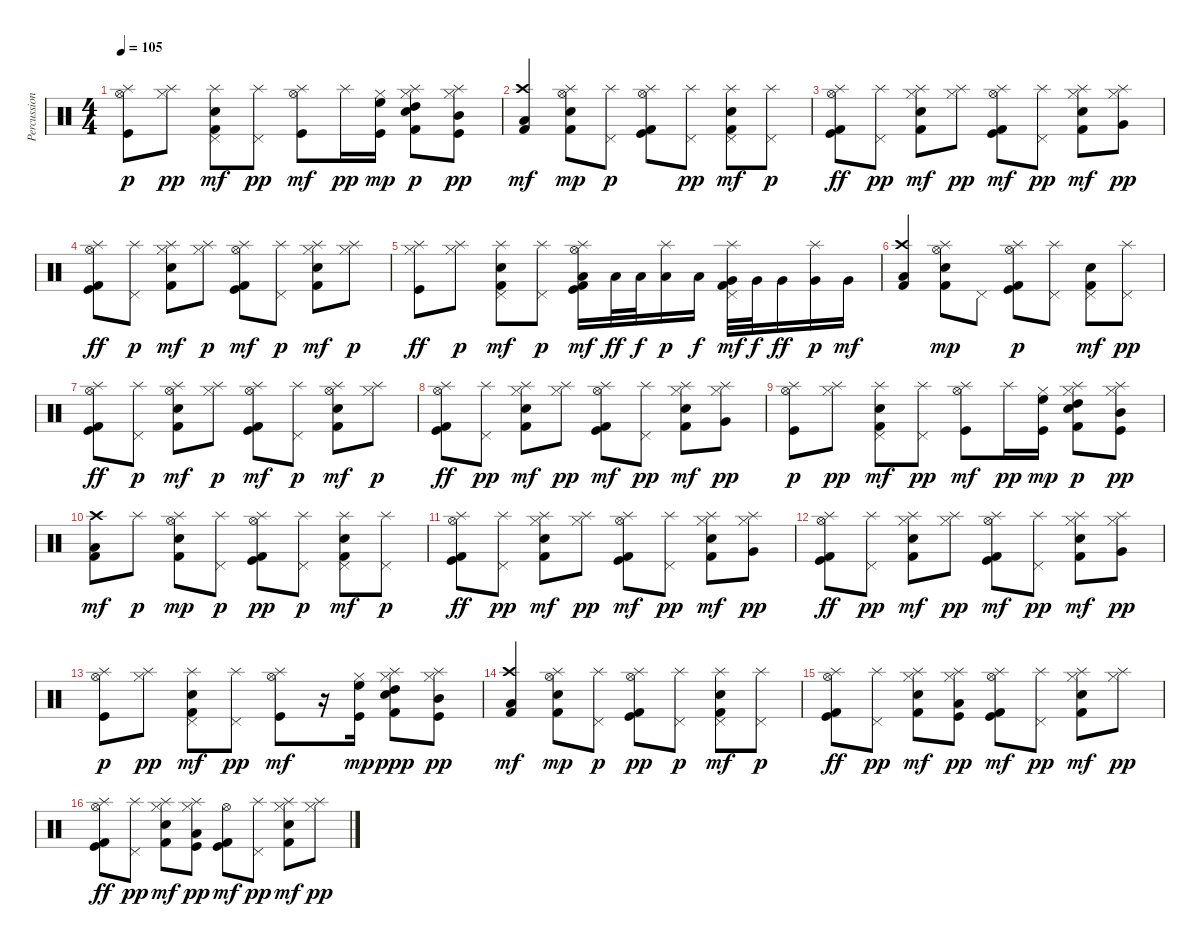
\track ("Percussion" "Percussion") {instrument percussion}
\staff {score}
\articulation defaults
\ts (4 4)
\tempo 105
\clef neutral
\ks c
("Hi-Hat (open)" "Splash (hit)" "Kick (hit)").8{dy p} ("Hi-Hat (closed)" "Splash (hit)").8{dy pp} ("Electric Snare (hit)" "Pedal Hi-Hat (hit)" "Splash (hit)" "Kick (hit) 2").8{dy mf} ("Pedal Hi-Hat (hit)" "Splash (hit)").8{dy pp} ("Hi-Hat (open)" "Splash (hit)" "Kick (hit)").8{dy mf} "Splash (hit)".16{dy pp} ("Hi-Hat (closed)" "High Floor Tom (hit)" "Kick (hit)").16{dy mp} ("Electric Snare (hit)" "Hi-Hat (closed)" "High Tom (hit)" "Splash (hit)" "Kick (hit) 2").8{dy p} ("Hi-Hat (closed)" "Mid Tom (hit)" "Splash (hit)" "Kick (hit)").8{dy pp} |
("Crash high (hit)" "Low Floor Tom (hit)" "Kick (hit) 2").4{dy mf} ("Electric Snare (hit)" "Hi-Hat (open)" "Splash (hit)" "Kick (hit) 2").8{dy mp} ("Pedal Hi-Hat (hit)" "Splash (hit)").8{dy p} ("Hi-Hat (open)" "Splash (hit)" "Kick (hit)" "Kick (hit) 2").8 ("Pedal Hi-Hat (hit)" "Splash (hit)").8{dy pp} ("Electric Snare (hit)" "Pedal Hi-Hat (hit)" "Splash (hit)" "Kick (hit) 2").8{dy mf} ("Pedal Hi-Hat (hit)" "Splash (hit)").8{dy p} |
("Hi-Hat (open)" "Splash (hit)" "Kick (hit)" "Kick (hit) 2").8{dy ff} ("Pedal Hi-Hat (hit)" "Splash (hit)").8{dy pp} ("Electric Snare (hit)" "Hi-Hat (closed)" "Splash (hit)" "Kick (hit) 2").8{dy mf} ("Hi-Hat (closed)" "Splash (hit)").8{dy pp} ("Hi-Hat (open)" "Splash (hit)" "Kick (hit)" "Kick (hit) 2").8{dy mf} ("Pedal Hi-Hat (hit)" "Splash (hit)").8{dy pp} ("Electric Snare (hit)" "Hi-Hat (closed)" "Splash (hit)" "Kick (hit) 2").8{dy mf} ("Very Low Tom (hit)" "Hi-Hat (closed)" "Splash (hit)").8{dy pp} |
("Hi-Hat (open)" "Splash (hit)" "Kick (hit)" "Kick (hit) 2").8{dy ff} ("Pedal Hi-Hat (hit)" "Splash (hit)").8{dy p} ("Electric Snare (hit)" "Hi-Hat (closed)" "Splash (hit)" "Kick (hit) 2").8{dy mf} ("Hi-Hat (closed)" "Splash (hit)").8{dy p} ("Hi-Hat (open)" "Splash (hit)" "Kick (hit)" "Kick (hit) 2").8{dy mf} ("Pedal Hi-Hat (hit)" "Splash (hit)").8{dy p} ("Electric Snare (hit)" "Hi-Hat (closed)" "Splash (hit)" "Kick (hit) 2").8{dy mf} ("Hi-Hat (closed)" "Splash (hit)").8{dy p} |
("Hi-Hat (closed)" "Splash (hit)" "Kick (hit)").8{dy ff} ("Hi-Hat (closed)" "Splash (hit)").8{dy p} ("Electric Snare (hit)" "Pedal Hi-Hat (hit)" "Splash (hit)" "Kick (hit) 2").8{dy mf} ("Pedal Hi-Hat (hit)" "Splash (hit)").8{dy p} ("Low Tom (hit)" "Hi-Hat (open)" "Splash (hit)" "Kick (hit)" "Kick (hit) 2").16{dy mf} "Low Tom (hit)".32{dy ff} "Low Tom (hit)".32{dy f} ("Low Tom (hit)" "Splash (hit)").16{dy p} "Low Tom (hit)".16{dy f} ("Very Low Tom (hit)" "Pedal Hi-Hat (hit)" "Splash (hit)" "Kick (hit) 2").32{dy mf} "Very Low Tom (hit)".32{dy f} "Very Low Tom (hit)".16{dy ff} ("Very Low Tom (hit)" "Splash (hit)").16{dy p} "Very Low Tom (hit)".16{dy mf} |
("Crash high (hit)" "Low Floor Tom (hit)" "Kick (hit) 2").4 ("Electric Snare (hit)" "Hi-Hat (open)" "Splash (hit)" "Kick (hit) 2").8{dy mp} "Pedal Hi-Hat (hit)".8 ("Hi-Hat (open)" "Splash (hit)" "Kick (hit)" "Kick (hit) 2").8{dy p} ("Pedal Hi-Hat (hit)" "Splash (hit)").8 ("Electric Snare (hit)" "Pedal Hi-Hat (hit)" "Kick (hit) 2").8{dy mf} ("Pedal Hi-Hat (hit)" "Splash (hit)").8{dy pp} |
("Hi-Hat (open)" "Splash (hit)" "Kick (hit)" "Kick (hit) 2").8{dy ff} ("Pedal Hi-Hat (hit)" "Splash (hit)").8{dy p} ("Electric Snare (hit)" "Hi-Hat (open)" "Splash (hit)" "Kick (hit) 2").8{dy mf} ("Hi-Hat (closed)" "Splash (hit)").8{dy p} ("Hi-Hat (open)" "Splash (hit)" "Kick (hit)" "Kick (hit) 2").8{dy mf} ("Pedal Hi-Hat (hit)" "Splash (hit)").8{dy p} ("Electric Snare (hit)" "Hi-Hat (open)" "Splash (hit)" "Kick (hit) 2").8{dy mf} ("Hi-Hat (closed)" "Splash (hit)").8{dy p} |
("Hi-Hat (open)" "Splash (hit)" "Kick (hit)" "Kick (hit) 2").8{dy ff} ("Pedal Hi-Hat (hit)" "Splash (hit)").8{dy pp} ("Electric Snare (hit)" "Hi-Hat (closed)" "Splash (hit)" "Kick (hit) 2").8{dy mf} ("Hi-Hat (closed)" "Splash (hit)").8{dy pp} ("Hi-Hat (open)" "Splash (hit)" "Kick (hit)" "Kick (hit) 2").8{dy mf} ("Pedal Hi-Hat (hit)" "Splash (hit)").8{dy pp} ("Electric Snare (hit)" "Hi-Hat (closed)" "Splash (hit)" "Kick (hit) 2").8{dy mf} ("Very Low Tom (hit)" "Hi-Hat (closed)" "Splash (hit)").8{dy pp} |
("Hi-Hat (open)" "Splash (hit)" "Kick (hit)").8{dy p} ("Hi-Hat (closed)" "Splash (hit)").8{dy pp} ("Electric Snare (hit)" "Pedal Hi-Hat (hit)" "Splash (hit)" "Kick (hit) 2").8{dy mf} ("Pedal Hi-Hat (hit)" "Splash (hit)").8{dy pp} ("Hi-Hat (open)" "Splash (hit)" "Kick (hit)").8{dy mf} "Splash (hit)".16{dy pp} ("Hi-Hat (closed)" "High Floor Tom (hit)" "Kick (hit)").16{dy mp} ("Electric Snare (hit)" "Hi-Hat (closed)" "High Tom (hit)" "Splash (hit)" "Kick (hit) 2").8{dy p} ("Hi-Hat (closed)" "Mid Tom (hit)" "Splash (hit)" "Kick (hit)").8{dy pp} |
("Crash high (hit)" "Low Floor Tom (hit)" "Kick (hit) 2").8{dy mf} "Splash (hit)".8{dy p} ("Electric Snare (hit)" "Hi-Hat (open)" "Splash (hit)" "Kick (hit) 2").8{dy mp} ("Pedal Hi-Hat (hit)" "Splash (hit)").8{dy p} ("Hi-Hat (open)" "Splash (hit)" "Kick (hit)" "Kick (hit) 2").8{dy pp} ("Pedal Hi-Hat (hit)" "Splash (hit)").8{dy p} ("Electric Snare (hit)" "Pedal Hi-Hat (hit)" "Splash (hit)" "Kick (hit) 2").8{dy mf} ("Pedal Hi-Hat (hit)" "Splash (hit)").8{dy p} |
("Hi-Hat (open)" "Splash (hit)" "Kick (hit)" "Kick (hit) 2").8{dy ff} ("Pedal Hi-Hat (hit)" "Splash (hit)").8{dy pp} ("Electric Snare (hit)" "Hi-Hat (closed)" "Splash (hit)" "Kick (hit) 2").8{dy mf} ("Hi-Hat (closed)" "Splash (hit)").8{dy pp} ("Hi-Hat (open)" "Splash (hit)" "Kick (hit)" "Kick (hit) 2").8{dy mf} ("Pedal Hi-Hat (hit)" "Splash (hit)").8{dy pp} ("Electric Snare (hit)" "Hi-Hat (closed)" "Splash (hit)" "Kick (hit) 2").8{dy mf} ("Very Low Tom (hit)" "Hi-Hat (closed)" "Splash (hit)").8{dy pp} |
("Hi-Hat (open)" "Splash (hit)" "Kick (hit)" "Kick (hit) 2").8{dy ff} ("Pedal Hi-Hat (hit)" "Splash (hit)").8{dy pp} ("Electric Snare (hit)" "Hi-Hat (closed)" "Splash (hit)" "Kick (hit) 2").8{dy mf} ("Hi-Hat (closed)" "Splash (hit)").8{dy pp} ("Hi-Hat (open)" "Splash (hit)" "Kick (hit)" "Kick (hit) 2").8{dy mf} ("Pedal Hi-Hat (hit)" "Splash (hit)").8{dy pp} ("Electric Snare (hit)" "Hi-Hat (closed)" "Splash (hit)" "Kick (hit) 2").8{dy mf} ("Very Low Tom (hit)" "Hi-Hat (closed)" "Splash (hit)").8{dy pp} |
("Hi-Hat (open)" "Splash (hit)" "Kick (hit)").8{dy p} ("Hi-Hat (closed)" "Splash (hit)").8{dy pp} ("Electric Snare (hit)" "Pedal Hi-Hat (hit)" "Splash (hit)" "Kick (hit) 2").8{dy mf} ("Pedal Hi-Hat (hit)" "Splash (hit)").8{dy pp} ("Hi-Hat (open)" "Splash (hit)" "Kick (hit)").8{dy mf} r.16 ("Hi-Hat (closed)" "High Floor Tom (hit)" "Kick (hit)").16{dy mp} ("Electric Snare (hit)" "Hi-Hat (closed)" "High Tom (hit)" "Splash (hit)" "Kick (hit) 2").8{dy ppp} ("Hi-Hat (closed)" "Mid Tom (hit)" "Splash (hit)" "Kick (hit)").8{dy pp} |
("Crash high (hit)" "Low Floor Tom (hit)" "Kick (hit) 2").4{dy mf} ("Electric Snare (hit)" "Hi-Hat (open)" "Splash (hit)" "Kick (hit) 2").8{dy mp} ("Pedal Hi-Hat (hit)" "Splash (hit)").8{dy p} ("Hi-Hat (open)" "Splash (hit)" "Kick (hit)" "Kick (hit) 2").8{dy pp} ("Pedal Hi-Hat (hit)" "Splash (hit)").8{dy p} ("Electric Snare (hit)" "Pedal Hi-Hat (hit)" "Splash (hit)" "Kick (hit) 2").8{dy mf} ("Pedal Hi-Hat (hit)" "Splash (hit)").8{dy p} |
("Hi-Hat (open)" "Splash (hit)" "Kick (hit)" "Kick (hit) 2").8{dy ff} ("Pedal Hi-Hat (hit)" "Splash (hit)").8{dy pp} ("Electric Snare (hit)" "Hi-Hat (closed)" "Splash (hit)" "Kick (hit) 2").8{dy mf} ("Low Tom (hit)" "Hi-Hat (closed)" "Splash (hit)" "Kick (hit)").8{dy pp} ("Hi-Hat (open)" "Splash (hit)" "Kick (hit)" "Kick (hit) 2").8{dy mf} ("Pedal Hi-Hat (hit)" "Splash (hit)").8{dy pp} ("Electric Snare (hit)" "Hi-Hat (closed)" "Splash (hit)" "Kick (hit) 2").8{dy mf} ("Hi-Hat (closed)" "Splash (hit)").8{dy pp} |
("Hi-Hat (open)" "Splash (hit)" "Kick (hit)" "Kick (hit) 2").8{dy ff} ("Pedal Hi-Hat (hit)" "Splash (hit)").8{dy pp} ("Electric Snare (hit)" "Hi-Hat (closed)" "Splash (hit)" "Kick (hit) 2").8{dy mf} ("Low Tom (hit)" "Hi-Hat (closed)" "Splash (hit)" "Kick (hit)").8{dy pp} ("Hi-Hat (open)" "Kick (hit)" "Kick (hit) 2").8{dy mf} ("Pedal Hi-Hat (hit)" "Splash (hit)").8{dy pp} ("Electric Snare (hit)" "Hi-Hat (closed)" "Splash (hit)" "Kick (hit) 2").8{dy mf} ("Hi-Hat (closed)" "Splash (hit)").8{dy pp}
